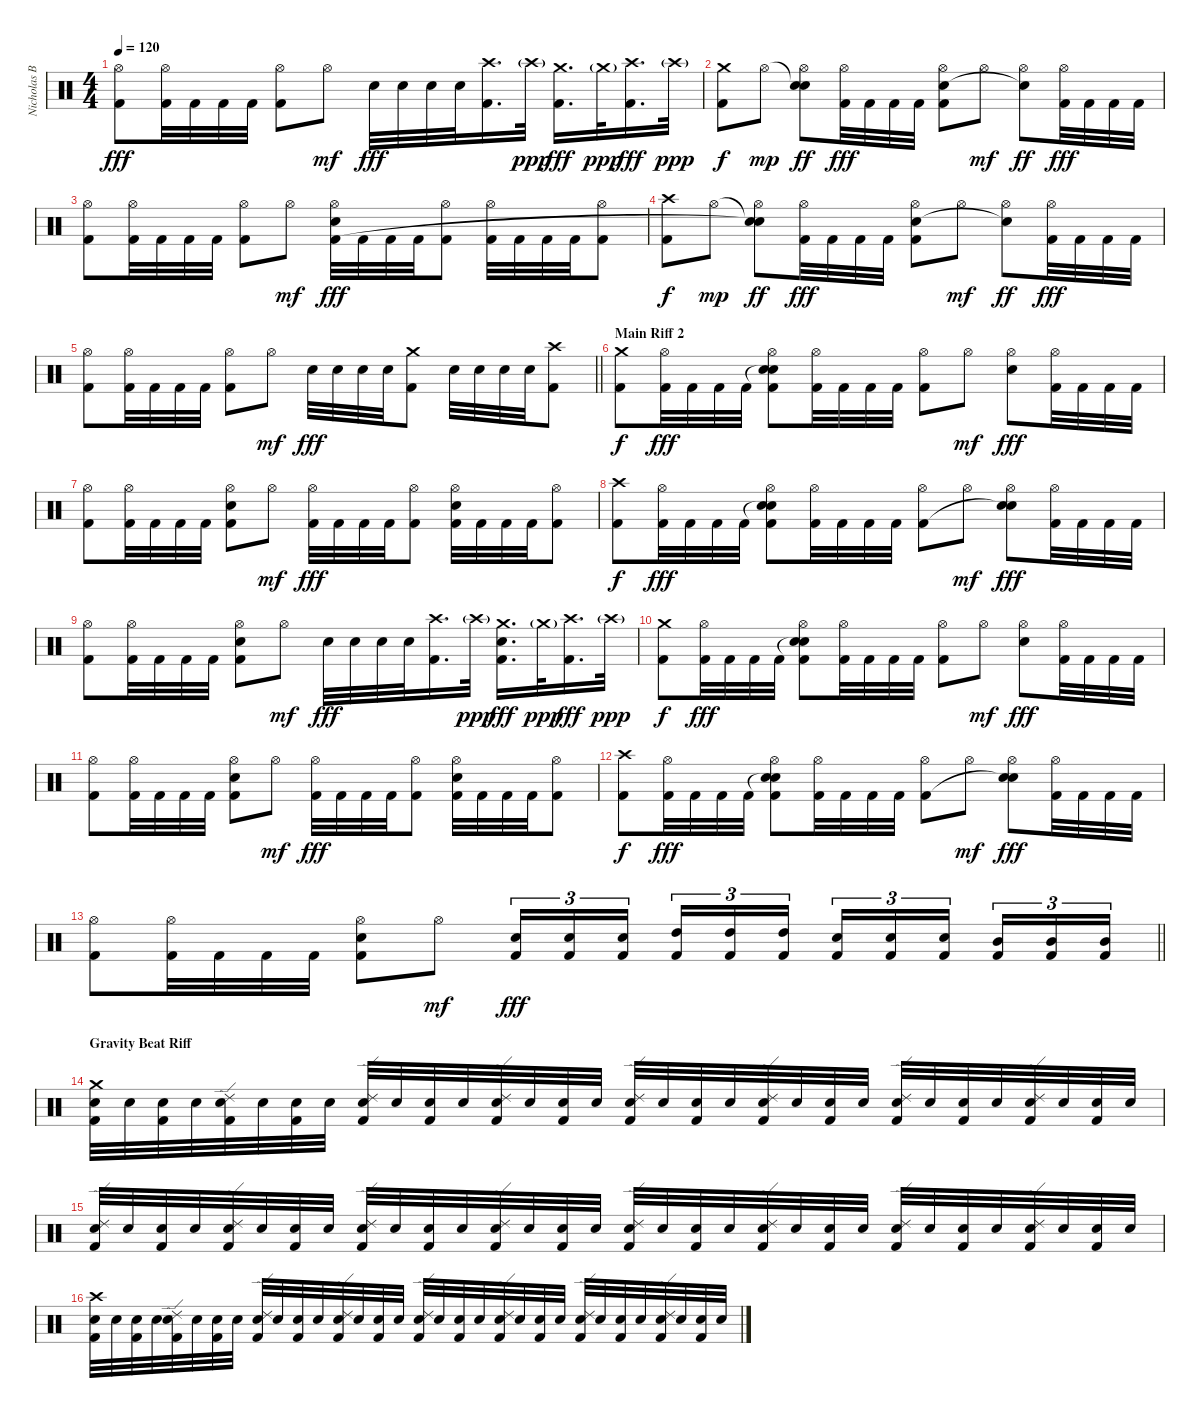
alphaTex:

\track ("Nicholas Barker" "Nicholas B") {instrument percussion}
\staff {score}
\articulation defaults
\ts (4 4)
\tempo 120
\clef neutral
\ks c
("Hi-Hat (open)" "Kick (hit) 2").8{dy fff} ("Hi-Hat (open)" "Kick (hit) 2").32 "Kick (hit) 2".32 "Kick (hit) 2".32 "Kick (hit) 2".32 ("Hi-Hat (open)" "Kick (hit) 2").8 "Hi-Hat (open)".8{dy mf} "Snare (hit) 2".32{dy fff} "Snare (hit) 2".32 "Snare (hit) 2".32 "Snare (hit) 2".32 ("Crash high (hit)" "Kick (hit) 2").16{d} "Crash high (hit)"{g}.32{dy ppp} ("Crash medium (hit)" "Kick (hit) 2").16{d dy fff} "Crash medium (hit)"{g}.32{dy ppp} ("Crash high (hit)" "Kick (hit) 2").16{d dy fff} "Crash high (hit)"{g}.32{dy ppp} |
("Crash medium (hit)" "Kick (hit) 2").8{dy f} "Hi-Hat (open)".8{dy mp} ("Snare (hit)"{t} "Hi-Hat (open)" "Snare (hit)"{t}).8{dy ff} ("Hi-Hat (open)" "Kick (hit) 2").32{dy fff} "Kick (hit) 2".32 "Kick (hit) 2".32 "Kick (hit) 2".32 ("Hi-Hat (open)" "Snare (hit) 2" "Kick (hit) 2").8 "Hi-Hat (open)".8{dy mf} ("Hi-Hat (open)" "Snare (hit)"{t}).8{dy ff} ("Hi-Hat (open)" "Kick (hit) 2").32{dy fff} "Kick (hit) 2".32 "Kick (hit) 2".32 "Kick (hit) 2".32 |
("Hi-Hat (open)" "Kick (hit) 2").8 ("Hi-Hat (open)" "Kick (hit) 2").32 "Kick (hit) 2".32 "Kick (hit) 2".32 "Kick (hit) 2".32 ("Hi-Hat (open)" "Kick (hit) 2").8 "Hi-Hat (open)".8{dy mf} ("Hi-Hat (open)" "Snare (hit) 2" "Kick (hit) 2").32{dy fff} "Kick (hit) 2".32 "Kick (hit) 2".32 "Kick (hit) 2".32 ("Hi-Hat (open)" "Kick (hit) 2").8 ("Hi-Hat (open)" "Kick (hit) 2").32 "Kick (hit) 2".32 "Kick (hit) 2".32 "Kick (hit) 2".32 ("Hi-Hat (open)" "Kick (hit) 2").8 |
("Crash high (hit)" "Kick (hit) 2").8{dy f} "Hi-Hat (open)".8{dy mp} ("Snare (hit)"{t} "Hi-Hat (open)" "Snare (hit)"{t}).8{dy ff} ("Hi-Hat (open)" "Kick (hit) 2").32{dy fff} "Kick (hit) 2".32 "Kick (hit) 2".32 "Kick (hit) 2".32 ("Hi-Hat (open)" "Snare (hit) 2" "Kick (hit) 2").8 "Hi-Hat (open)".8{dy mf} ("Hi-Hat (open)" "Snare (hit)"{t}).8{dy ff} ("Hi-Hat (open)" "Kick (hit) 2").32{dy fff} "Kick (hit) 2".32 "Kick (hit) 2".32 "Kick (hit) 2".32 |
\barLineRight lightlight
("Hi-Hat (open)" "Kick (hit) 2").8 ("Hi-Hat (open)" "Kick (hit) 2").32 "Kick (hit) 2".32 "Kick (hit) 2".32 "Kick (hit) 2".32 ("Hi-Hat (open)" "Kick (hit) 2").8 "Hi-Hat (open)".8{dy mf} "Snare (hit) 2".32{dy fff} "Snare (hit) 2".32 "Snare (hit) 2".32 "Snare (hit) 2".32 ("Crash medium (hit)" "Kick (hit) 2").8 "Snare (hit) 2".32 "Snare (hit) 2".32 "Snare (hit) 2".32 "Snare (hit) 2".32 ("Crash high (hit)" "Kick (hit) 2").8 |
\section ("" "Main Riff 2")
("Crash medium (hit)" "Kick (hit) 2").8{dy f} ("Hi-Hat (open)" "Kick (hit) 2").32{dy fff} "Kick (hit) 2".32 "Kick (hit) 2".32 "Kick (hit) 2".32 ("Snare (hit)"{t} "Hi-Hat (open)" "Snare (hit) 2" "Kick (hit) 2").8 ("Hi-Hat (open)" "Kick (hit) 2").32 "Kick (hit) 2".32 "Kick (hit) 2".32 "Kick (hit) 2".32 ("Hi-Hat (open)" "Kick (hit) 2").8 "Hi-Hat (open)".8{dy mf} ("Hi-Hat (open)" "Snare (hit) 2").8{dy fff} ("Hi-Hat (open)" "Kick (hit) 2").32 "Kick (hit) 2".32 "Kick (hit) 2".32 "Kick (hit) 2".32 |
("Hi-Hat (open)" "Kick (hit) 2").8 ("Hi-Hat (open)" "Kick (hit) 2").32 "Kick (hit) 2".32 "Kick (hit) 2".32 "Kick (hit) 2".32 ("Hi-Hat (open)" "Snare (hit) 2" "Kick (hit) 2").8 "Hi-Hat (open)".8{dy mf} ("Hi-Hat (open)" "Kick (hit) 2").32{dy fff} "Kick (hit) 2".32 "Kick (hit) 2".32 "Kick (hit) 2".32 ("Hi-Hat (open)" "Kick (hit) 2").8 ("Hi-Hat (open)" "Snare (hit) 2" "Kick (hit) 2").32 "Kick (hit) 2".32 "Kick (hit) 2".32 "Kick (hit) 2".32 ("Hi-Hat (open)" "Kick (hit) 2").8 |
("Crash high (hit)" "Kick (hit) 2").8{dy f} ("Hi-Hat (open)" "Kick (hit) 2").32{dy fff} "Kick (hit) 2".32 "Kick (hit) 2".32 "Kick (hit) 2".32 ("Snare (hit)"{t} "Hi-Hat (open)" "Snare (hit) 2" "Kick (hit) 2").8 ("Hi-Hat (open)" "Kick (hit) 2").32 "Kick (hit) 2".32 "Kick (hit) 2".32 "Kick (hit) 2".32 ("Hi-Hat (open)" "Kick (hit) 2").8 "Hi-Hat (open)".8{dy mf} ("Hi-Hat (open)" "Snare (hit)"{t} "Snare (hit) 2").8{dy fff} ("Hi-Hat (open)" "Kick (hit) 2").32 "Kick (hit) 2".32 "Kick (hit) 2".32 "Kick (hit) 2".32 |
("Hi-Hat (open)" "Kick (hit) 2").8 ("Hi-Hat (open)" "Kick (hit) 2").32 "Kick (hit) 2".32 "Kick (hit) 2".32 "Kick (hit) 2".32 ("Hi-Hat (open)" "Snare (hit) 2" "Kick (hit) 2").8 "Hi-Hat (open)".8{dy mf} "Snare (hit) 2".32{dy fff} "Snare (hit) 2".32 "Snare (hit) 2".32 "Snare (hit) 2".32 ("Crash high (hit)" "Kick (hit) 2").16{d} "Crash high (hit)"{g}.32{dy ppp} ("Crash medium (hit)" "Snare (hit) 2" "Kick (hit) 2").16{d dy fff} "Crash medium (hit)"{g}.32{dy ppp} ("Crash high (hit)" "Kick (hit) 2").16{d dy fff} "Crash high (hit)"{g}.32{dy ppp} |
("Crash medium (hit)" "Kick (hit) 2").8{dy f} ("Hi-Hat (open)" "Kick (hit) 2").32{dy fff} "Kick (hit) 2".32 "Kick (hit) 2".32 "Kick (hit) 2".32 ("Snare (hit)"{t} "Hi-Hat (open)" "Snare (hit) 2" "Kick (hit) 2").8 ("Hi-Hat (open)" "Kick (hit) 2").32 "Kick (hit) 2".32 "Kick (hit) 2".32 "Kick (hit) 2".32 ("Hi-Hat (open)" "Kick (hit) 2").8 "Hi-Hat (open)".8{dy mf} ("Hi-Hat (open)" "Snare (hit) 2").8{dy fff} ("Hi-Hat (open)" "Kick (hit) 2").32 "Kick (hit) 2".32 "Kick (hit) 2".32 "Kick (hit) 2".32 |
("Hi-Hat (open)" "Kick (hit) 2").8 ("Hi-Hat (open)" "Kick (hit) 2").32 "Kick (hit) 2".32 "Kick (hit) 2".32 "Kick (hit) 2".32 ("Hi-Hat (open)" "Snare (hit) 2" "Kick (hit) 2").8 "Hi-Hat (open)".8{dy mf} ("Hi-Hat (open)" "Kick (hit) 2").32{dy fff} "Kick (hit) 2".32 "Kick (hit) 2".32 "Kick (hit) 2".32 ("Hi-Hat (open)" "Kick (hit) 2").8 ("Hi-Hat (open)" "Snare (hit) 2" "Kick (hit) 2").32 "Kick (hit) 2".32 "Kick (hit) 2".32 "Kick (hit) 2".32 ("Hi-Hat (open)" "Kick (hit) 2").8 |
("Crash high (hit)" "Kick (hit) 2").8{dy f} ("Hi-Hat (open)" "Kick (hit) 2").32{dy fff} "Kick (hit) 2".32 "Kick (hit) 2".32 "Kick (hit) 2".32 ("Snare (hit)"{t} "Hi-Hat (open)" "Snare (hit) 2" "Kick (hit) 2").8 ("Hi-Hat (open)" "Kick (hit) 2").32 "Kick (hit) 2".32 "Kick (hit) 2".32 "Kick (hit) 2".32 ("Hi-Hat (open)" "Kick (hit) 2").8 "Hi-Hat (open)".8{dy mf} ("Hi-Hat (open)" "Snare (hit)"{t} "Snare (hit) 2").8{dy fff} ("Hi-Hat (open)" "Kick (hit) 2").32 "Kick (hit) 2".32 "Kick (hit) 2".32 "Kick (hit) 2".32 |
\barLineRight lightlight
("Hi-Hat (open)" "Kick (hit) 2").8 ("Hi-Hat (open)" "Kick (hit) 2").32 "Kick (hit) 2".32 "Kick (hit) 2".32 "Kick (hit) 2".32 ("Hi-Hat (open)" "Snare (hit) 2" "Kick (hit) 2").8 "Hi-Hat (open)".8{dy mf} ("Snare (hit) 2" "Kick (hit) 2").16{tu (3 2) dy fff} ("Snare (hit) 2" "Kick (hit) 2").16{tu (3 2)} ("Snare (hit) 2" "Kick (hit) 2").16{tu (3 2) beam splitsecondary} ("High Tom (hit)" "Kick (hit) 2").16{tu (3 2)} ("High Tom (hit)" "Kick (hit) 2").16{tu (3 2)} ("High Tom (hit)" "Kick (hit) 2").16{tu (3 2)} ("Snare (hit) 2" "Kick (hit) 2").16{tu (3 2)} ("Snare (hit) 2" "Kick (hit) 2").16{tu (3 2)} ("Snare (hit) 2" "Kick (hit) 2").16{tu (3 2) beam splitsecondary} ("Mid Tom (hit)" "Kick (hit) 2").16{tu (3 2)} ("Mid Tom (hit)" "Kick (hit) 2").16{tu (3 2)} ("Mid Tom (hit)" "Kick (hit) 2").16{tu (3 2)} |
\section ("" "Gravity Beat Riff")
("Crash medium (hit)" "Snare (hit) 2" "Kick (hit) 2").32 "Snare (hit) 2".32 ("Snare (hit) 2" "Kick (hit) 2").32 "Snare (hit) 2".32 ("Ride (edge) 2" "Snare (hit) 2" "Kick (hit) 2").32 "Snare (hit) 2".32 ("Snare (hit) 2" "Kick (hit) 2").32 "Snare (hit) 2".32 ("Ride (edge) 2" "Snare (hit) 2" "Kick (hit) 2").32 "Snare (hit) 2".32 ("Snare (hit) 2" "Kick (hit) 2").32 "Snare (hit) 2".32 ("Ride (edge) 2" "Snare (hit) 2" "Kick (hit) 2").32 "Snare (hit) 2".32 ("Snare (hit) 2" "Kick (hit) 2").32 "Snare (hit) 2".32 ("Ride (edge) 2" "Snare (hit) 2" "Kick (hit) 2").32 "Snare (hit) 2".32 ("Snare (hit) 2" "Kick (hit) 2").32 "Snare (hit) 2".32 ("Ride (edge) 2" "Snare (hit) 2" "Kick (hit) 2").32 "Snare (hit) 2".32 ("Snare (hit) 2" "Kick (hit) 2").32 "Snare (hit) 2".32 ("Ride (edge) 2" "Snare (hit) 2" "Kick (hit) 2").32 "Snare (hit) 2".32 ("Snare (hit) 2" "Kick (hit) 2").32 "Snare (hit) 2".32 ("Ride (edge) 2" "Snare (hit) 2" "Kick (hit) 2").32 "Snare (hit) 2".32 ("Snare (hit) 2" "Kick (hit) 2").32 "Snare (hit) 2".32 |
("Ride (edge) 2" "Snare (hit) 2" "Kick (hit) 2").32 "Snare (hit) 2".32 ("Snare (hit) 2" "Kick (hit) 2").32 "Snare (hit) 2".32 ("Ride (edge) 2" "Snare (hit) 2" "Kick (hit) 2").32 "Snare (hit) 2".32 ("Snare (hit) 2" "Kick (hit) 2").32 "Snare (hit) 2".32 ("Ride (edge) 2" "Snare (hit) 2" "Kick (hit) 2").32 "Snare (hit) 2".32 ("Snare (hit) 2" "Kick (hit) 2").32 "Snare (hit) 2".32 ("Ride (edge) 2" "Snare (hit) 2" "Kick (hit) 2").32 "Snare (hit) 2".32 ("Snare (hit) 2" "Kick (hit) 2").32 "Snare (hit) 2".32 ("Ride (edge) 2" "Snare (hit) 2" "Kick (hit) 2").32 "Snare (hit) 2".32 ("Snare (hit) 2" "Kick (hit) 2").32 "Snare (hit) 2".32 ("Ride (edge) 2" "Snare (hit) 2" "Kick (hit) 2").32 "Snare (hit) 2".32 ("Snare (hit) 2" "Kick (hit) 2").32 "Snare (hit) 2".32 ("Ride (edge) 2" "Snare (hit) 2" "Kick (hit) 2").32 "Snare (hit) 2".32 ("Snare (hit) 2" "Kick (hit) 2").32 "Snare (hit) 2".32 ("Ride (edge) 2" "Snare (hit) 2" "Kick (hit) 2").32 "Snare (hit) 2".32 ("Snare (hit) 2" "Kick (hit) 2").32 "Snare (hit) 2".32 |
("Crash high (hit)" "Snare (hit) 2" "Kick (hit) 2").32 "Snare (hit) 2".32 ("Snare (hit) 2" "Kick (hit) 2").32 "Snare (hit) 2".32 ("Ride (edge) 2" "Snare (hit) 2" "Kick (hit) 2").32 "Snare (hit) 2".32 ("Snare (hit) 2" "Kick (hit) 2").32 "Snare (hit) 2".32 ("Ride (edge) 2" "Snare (hit) 2" "Kick (hit) 2").32 "Snare (hit) 2".32 ("Snare (hit) 2" "Kick (hit) 2").32 "Snare (hit) 2".32 ("Ride (edge) 2" "Snare (hit) 2" "Kick (hit) 2").32 "Snare (hit) 2".32 ("Snare (hit) 2" "Kick (hit) 2").32 "Snare (hit) 2".32 ("Ride (edge) 2" "Snare (hit) 2" "Kick (hit) 2").32 "Snare (hit) 2".32 ("Snare (hit) 2" "Kick (hit) 2").32 "Snare (hit) 2".32 ("Ride (edge) 2" "Snare (hit) 2" "Kick (hit) 2").32 "Snare (hit) 2".32 ("Snare (hit) 2" "Kick (hit) 2").32 "Snare (hit) 2".32 ("Ride (edge) 2" "Snare (hit) 2" "Kick (hit) 2").32 "Snare (hit) 2".32 ("Snare (hit) 2" "Kick (hit) 2").32 "Snare (hit) 2".32 ("Ride (edge) 2" "Snare (hit) 2" "Kick (hit) 2").32 "Snare (hit) 2".32 ("Snare (hit) 2" "Kick (hit) 2").32 "Snare (hit) 2".32
